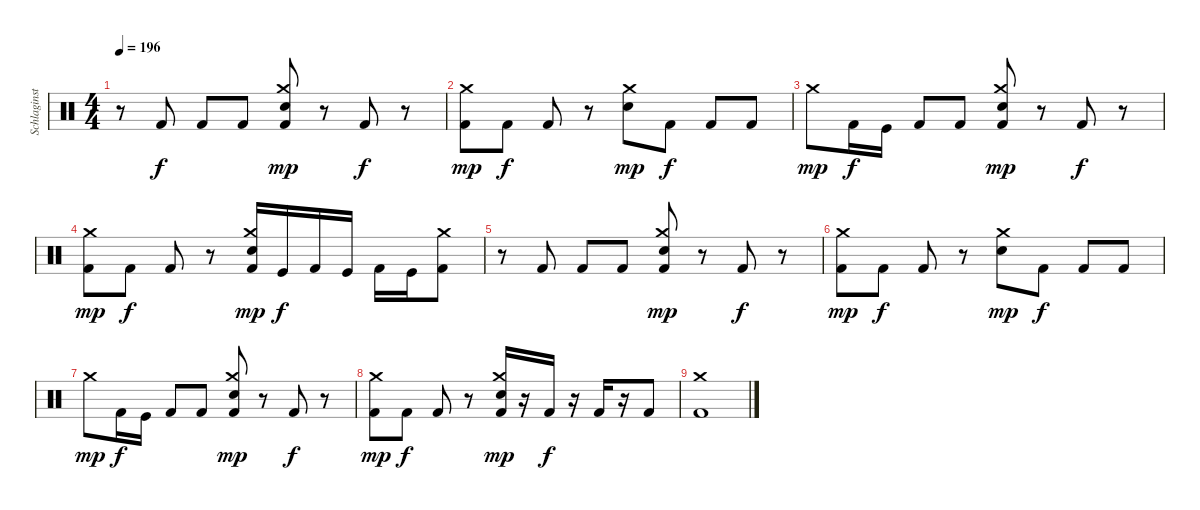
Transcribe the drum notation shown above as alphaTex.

\track ("Schlaginstrumente - Auswahl" "Schlaginst") {instrument percussion}
\staff
\articulation defaults
\ts (4 4)
\tempo 196
\clef neutral
\ks c
r.8{dy f} "Kick (hit) 2".8 "Kick (hit) 2".8 "Kick (hit) 2".8 ("Crash medium (hit)" "Snare (hit) 2" "Kick (hit) 2").8{dy mp} r.8 "Kick (hit) 2".8{dy f} r.8 |
("Crash medium (hit)" "Kick (hit) 2").8{dy mp} "Kick (hit) 2".8{dy f} "Kick (hit) 2".8 r.8 ("Crash medium (hit)" "Snare (hit) 2").8{dy mp} "Kick (hit) 2".8{dy f} "Kick (hit) 2".8 "Kick (hit) 2".8 |
"Crash medium (hit)".8{dy mp} "Kick (hit) 2".16{dy f} "Kick (hit)".16 "Kick (hit) 2".8 "Kick (hit) 2".8 ("Crash medium (hit)" "Snare (hit) 2" "Kick (hit) 2").8{dy mp} r.8 "Kick (hit) 2".8{dy f} r.8 |
("Crash medium (hit)" "Kick (hit) 2").8{dy mp} "Kick (hit) 2".8{dy f} "Kick (hit) 2".8 r.8 ("Crash medium (hit)" "Snare (hit) 2" "Kick (hit) 2").16{dy mp} "Kick (hit)".16{dy f} "Kick (hit) 2".16 "Kick (hit)".16 "Kick (hit) 2".16 "Kick (hit)".16 ("Crash medium (hit)" "Kick (hit) 2").8 |
r.8 "Kick (hit) 2".8 "Kick (hit) 2".8 "Kick (hit) 2".8 ("Crash medium (hit)" "Snare (hit) 2" "Kick (hit) 2").8{dy mp} r.8 "Kick (hit) 2".8{dy f} r.8 |
("Crash medium (hit)" "Kick (hit) 2").8{dy mp} "Kick (hit) 2".8{dy f} "Kick (hit) 2".8 r.8 ("Crash medium (hit)" "Snare (hit) 2").8{dy mp} "Kick (hit) 2".8{dy f} "Kick (hit) 2".8 "Kick (hit) 2".8 |
"Crash medium (hit)".8{dy mp} "Kick (hit) 2".16{dy f} "Kick (hit)".16 "Kick (hit) 2".8 "Kick (hit) 2".8 ("Crash medium (hit)" "Snare (hit) 2" "Kick (hit) 2").8{dy mp} r.8 "Kick (hit) 2".8{dy f} r.8 |
("Crash medium (hit)" "Kick (hit) 2").8{dy mp} "Kick (hit) 2".8{dy f} "Kick (hit) 2".8 r.8 ("Crash medium (hit)" "Snare (hit) 2" "Kick (hit) 2").16{dy mp} r.16 "Kick (hit) 2".16{dy f} r.16 "Kick (hit) 2".16 r.16 "Kick (hit) 2".8 |
("Crash medium (hit)" "Kick (hit) 2").1
